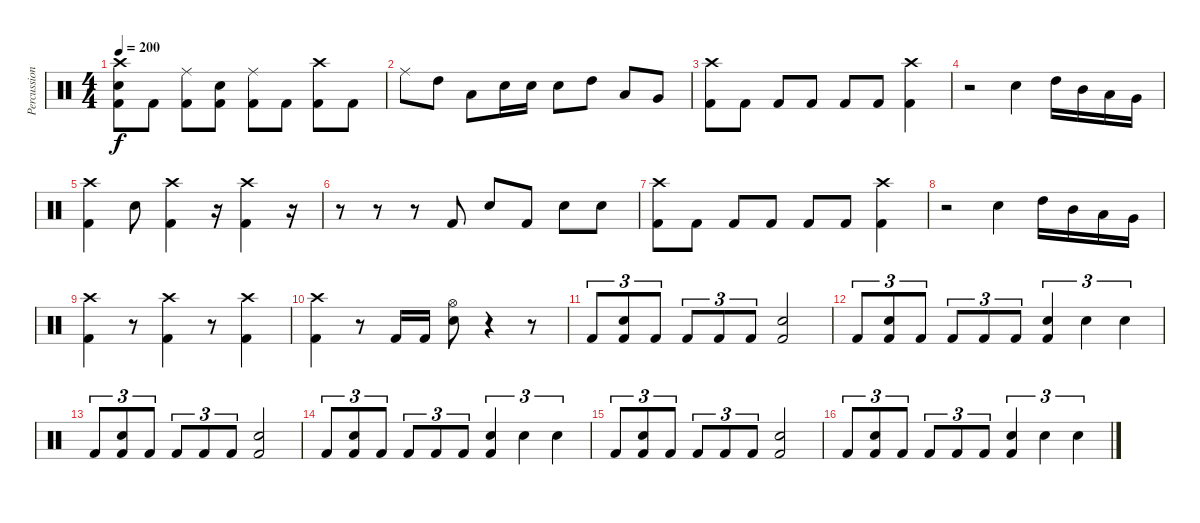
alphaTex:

\track ("Percussion" "Percussion") {instrument percussion}
\staff {score}
\articulation defaults
\ts (4 4)
\tempo 200
\clef neutral
\ks c
("Crash high (hit)" "Snare (hit) 2" "Kick (hit) 2").8{dy f} "Kick (hit) 2".8 ("Ride (middle)" "Kick (hit) 2").8 ("Snare (hit) 2" "Kick (hit) 2").8 ("Ride (middle)" "Kick (hit) 2").8 "Kick (hit) 2".8 ("Crash high (hit)" "Kick (hit) 2").8 "Kick (hit) 2".8 |
"Ride (middle)".8 "High Tom (hit)".8 "Low Tom (hit)".8 "Snare (hit) 2".16 "Snare (hit) 2".16 "Snare (hit) 2".8 "High Tom (hit)".8 "Low Tom (hit)".8 "Very Low Tom (hit)".8 |
("Crash high (hit)" "Kick (hit) 2").8 "Kick (hit) 2".8 "Kick (hit) 2".8 "Kick (hit) 2".8 "Kick (hit) 2".8 "Kick (hit) 2".8 ("Crash high (hit)" "Kick (hit) 2").4 |
r.2 "Snare (hit) 2".4 "High Tom (hit)".16 "Mid Tom (hit)".16 "Low Tom (hit)".16 "Very Low Tom (hit)".16 |
("Crash high (hit)" "Kick (hit) 2").4 "Snare (hit) 2".8 ("Crash high (hit)" "Kick (hit) 2").4 r.16 ("Crash high (hit)" "Kick (hit) 2").4 r.16 |
r.8 r.8 r.8 "Kick (hit) 2".8 "Snare (hit) 2".8 "Kick (hit) 2".8 "Snare (hit) 2".8 "Snare (hit) 2".8 |
("Crash high (hit)" "Kick (hit) 2").8 "Kick (hit) 2".8 "Kick (hit) 2".8 "Kick (hit) 2".8 "Kick (hit) 2".8 "Kick (hit) 2".8 ("Crash high (hit)" "Kick (hit) 2").4 |
r.2 "Snare (hit) 2".4 "High Tom (hit)".16 "Mid Tom (hit)".16 "Low Tom (hit)".16 "Very Low Tom (hit)".16 |
("Crash high (hit)" "Kick (hit) 2").4 r.8 ("Crash high (hit)" "Kick (hit) 2").4 r.8 ("Crash high (hit)" "Kick (hit) 2").4 |
("Crash high (hit)" "Kick (hit) 2").4 r.8 "Kick (hit) 2".16 "Kick (hit) 2".16 ("Hi-Hat (open)" "Snare (hit) 2").8 r.4 r.8 |
"Kick (hit) 2".8{tu (3 2)} ("Snare (hit) 2" "Kick (hit) 2").8{tu (3 2)} "Kick (hit) 2".8{tu (3 2)} "Kick (hit) 2".8{tu (3 2)} "Kick (hit) 2".8{tu (3 2)} "Kick (hit) 2".8{tu (3 2)} ("Snare (hit) 2" "Kick (hit) 2").2 |
"Kick (hit) 2".8{tu (3 2)} ("Snare (hit) 2" "Kick (hit) 2").8{tu (3 2)} "Kick (hit) 2".8{tu (3 2)} "Kick (hit) 2".8{tu (3 2)} "Kick (hit) 2".8{tu (3 2)} "Kick (hit) 2".8{tu (3 2)} ("Snare (hit) 2" "Kick (hit) 2").4{tu (3 2)} "Snare (hit) 2".4{tu (3 2)} "Snare (hit) 2".4{tu (3 2)} |
"Kick (hit) 2".8{tu (3 2)} ("Snare (hit) 2" "Kick (hit) 2").8{tu (3 2)} "Kick (hit) 2".8{tu (3 2)} "Kick (hit) 2".8{tu (3 2)} "Kick (hit) 2".8{tu (3 2)} "Kick (hit) 2".8{tu (3 2)} ("Snare (hit) 2" "Kick (hit) 2").2 |
"Kick (hit) 2".8{tu (3 2)} ("Snare (hit) 2" "Kick (hit) 2").8{tu (3 2)} "Kick (hit) 2".8{tu (3 2)} "Kick (hit) 2".8{tu (3 2)} "Kick (hit) 2".8{tu (3 2)} "Kick (hit) 2".8{tu (3 2)} ("Snare (hit) 2" "Kick (hit) 2").4{tu (3 2)} "Snare (hit) 2".4{tu (3 2)} "Snare (hit) 2".4{tu (3 2)} |
"Kick (hit) 2".8{tu (3 2)} ("Snare (hit) 2" "Kick (hit) 2").8{tu (3 2)} "Kick (hit) 2".8{tu (3 2)} "Kick (hit) 2".8{tu (3 2)} "Kick (hit) 2".8{tu (3 2)} "Kick (hit) 2".8{tu (3 2)} ("Snare (hit) 2" "Kick (hit) 2").2 |
"Kick (hit) 2".8{tu (3 2)} ("Snare (hit) 2" "Kick (hit) 2").8{tu (3 2)} "Kick (hit) 2".8{tu (3 2)} "Kick (hit) 2".8{tu (3 2)} "Kick (hit) 2".8{tu (3 2)} "Kick (hit) 2".8{tu (3 2)} ("Snare (hit) 2" "Kick (hit) 2").4{tu (3 2)} "Snare (hit) 2".4{tu (3 2)} "Snare (hit) 2".4{tu (3 2)}
